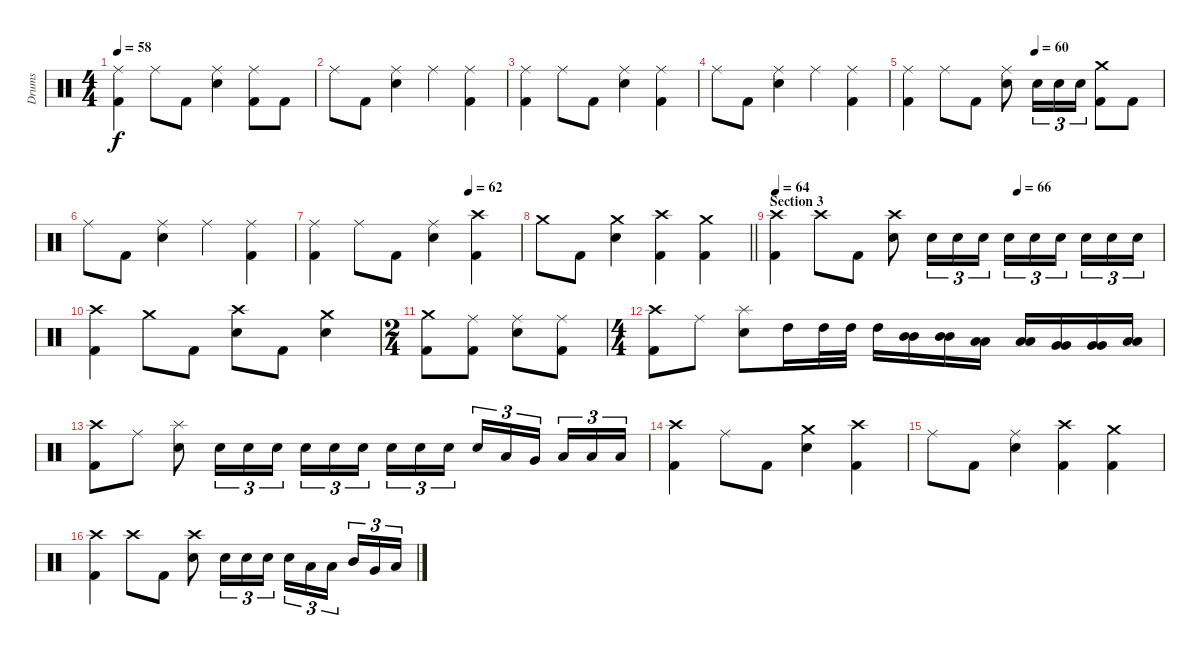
\track ("Drums" "Drums") {instrument percussion}
\staff {score}
\articulation defaults
\ts (4 4)
\tempo 58
\clef neutral
\ks c
("Ride (middle)" "Kick (hit) 2").4{dy f} "Ride (middle)".8 "Kick (hit) 2".8 ("Ride (middle)" "Electric Snare (hit)").4 ("Ride (middle)" "Kick (hit) 2").8 "Kick (hit) 2".8 |
"Ride (middle)".8 "Kick (hit) 2".8 ("Ride (middle)" "Electric Snare (hit)").4 "Ride (middle)".4 ("Ride (middle)" "Kick (hit) 2").4 |
("Ride (middle)" "Kick (hit) 2").4 "Ride (middle)".8 "Kick (hit) 2".8 ("Ride (middle)" "Electric Snare (hit)").4 ("Ride (middle)" "Kick (hit) 2").4 |
"Ride (middle)".8 "Kick (hit) 2".8 ("Ride (middle)" "Electric Snare (hit)").4 "Ride (middle)".4 ("Ride (middle)" "Kick (hit) 2").4 |
\tempo (60 0.5)
("Ride (middle)" "Kick (hit) 2").4 "Ride (middle)".8 "Kick (hit) 2".8 ("Ride (middle)" "Electric Snare (hit)").8 "Electric Snare (hit)".16{tu (3 2)} "Electric Snare (hit)".16{tu (3 2)} "Electric Snare (hit)".16{tu (3 2)} ("Crash medium (hit)" "Kick (hit) 2").8 "Kick (hit) 2".8 |
"Ride (middle)".8 "Kick (hit) 2".8 ("Ride (middle)" "Electric Snare (hit)").4 "Ride (middle)".4 ("Ride (middle)" "Kick (hit) 2").4 |
\tempo (62 0.75)
("Ride (middle)" "Kick (hit) 2").4 "Ride (middle)".8 "Kick (hit) 2".8 ("Ride (middle)" "Electric Snare (hit)").4 ("Crash high (hit)" "Kick (hit) 2").4 |
\barLineRight lightlight "Crash medium (hit)".8 "Kick (hit) 2".8
("Crash medium (hit)" "Electric Snare (hit)").4 ("Crash high (hit)" "Kick (hit) 2").4 ("Crash medium (hit)" "Kick (hit) 2").4 |
\section ("" "Section 3")
\tempo 64
\tempo (66 0.625)
("Crash high (hit)" "Kick (hit) 2").4 "Crash high (hit)".8 "Kick (hit) 2".8 ("Crash high (hit)" "Electric Snare (hit)").8 "Electric Snare (hit)".16{tu (3 2)} "Electric Snare (hit)".16{tu (3 2)} "Electric Snare (hit)".16{tu (3 2)} "Electric Snare (hit)".16{tu (3 2)} "Electric Snare (hit)".16{tu (3 2)} "Electric Snare (hit)".16{tu (3 2) beam splitsecondary} "Electric Snare (hit)".16{tu (3 2)} "Electric Snare (hit)".16{tu (3 2)} "Electric Snare (hit)".16{tu (3 2)} |
("Crash high (hit)" "Kick (hit) 2").4 "Crash medium (hit)".8 "Kick (hit) 2".8 ("Crash high (hit)" "Electric Snare (hit)").8 "Kick (hit) 2".8 ("Crash medium (hit)" "Electric Snare (hit)").4 |
\ts (2 4)
("Crash medium (hit)" "Kick (hit) 2").8 ("Ride (middle)" "Kick (hit) 2").8 ("Ride (middle)" "Electric Snare (hit)").8 ("Ride (middle)" "Kick (hit) 2").8 |
\ts (4 4)
("Crash high (hit)" "Kick (hit) 2").8 "Ride (middle)".8 ("Splash (hit)" "Electric Snare (hit)").8 "High Tom (hit)".16 "High Tom (hit)".32 "High Tom (hit)".32 "High Tom (hit)".16 ("Mid Tom (hit)" "Mid Tom (hit)").16 ("Mid Tom (hit)" "Mid Tom (hit)").16 ("Low Tom (hit)" "Low Tom (hit)").16 ("Low Tom (hit)" "Low Tom (hit)").16 ("Very Low Tom (hit)" "Very Low Tom (hit)").16 ("Very Low Tom (hit)" "Very Low Tom (hit)").16 ("Low Floor Tom (hit)" "Low Floor Tom (hit)").16 |
("Crash high (hit)" "Kick (hit) 2").8 "Ride (middle)".8 ("Splash (hit)" "Electric Snare (hit)").8 "Electric Snare (hit)".16{tu (3 2)} "Electric Snare (hit)".16{tu (3 2)} "Electric Snare (hit)".16{tu (3 2)} "Electric Snare (hit)".16{tu (3 2)} "Electric Snare (hit)".16{tu (3 2)} "Electric Snare (hit)".16{tu (3 2) beam splitsecondary} "Electric Snare (hit)".16{tu (3 2)} "Electric Snare (hit)".16{tu (3 2)} "Electric Snare (hit)".16{tu (3 2)} "Electric Snare (hit)".16{tu (3 2)} "Low Tom (hit)".16{tu (3 2)} "Very Low Tom (hit)".16{tu (3 2) beam splitsecondary} "Low Floor Tom (hit)".16{tu (3 2)} "Low Floor Tom (hit)".16{tu (3 2)} "Low Floor Tom (hit)".16{tu (3 2)} |
("Crash high (hit)" "Kick (hit) 2").4 "Ride (middle)".8 "Kick (hit) 2".8 ("Crash medium (hit)" "Electric Snare (hit)").4 ("Crash high (hit)" "Kick (hit) 2").4 |
"Ride (middle)".8 "Kick (hit) 2".8 ("Ride (middle)" "Electric Snare (hit)").4 ("Crash high (hit)" "Kick (hit) 2").4 ("Crash medium (hit)" "Kick (hit) 2").4 |
("Crash high (hit)" "Kick (hit) 2").4 "Crash high (hit)".8 "Kick (hit) 2".8 ("Crash high (hit)" "Electric Snare (hit)").8 "Electric Snare (hit)".16{tu (3 2)} "Electric Snare (hit)".16{tu (3 2)} "Electric Snare (hit)".16{tu (3 2)} "Electric Snare (hit)".16{tu (3 2)} "Low Tom (hit)".16{tu (3 2)} "Low Tom (hit)".16{tu (3 2) beam splitsecondary} "Mid Tom (hit)".16{tu (3 2)} "Very Low Tom (hit)".16{tu (3 2)} "Low Floor Tom (hit)".16{tu (3 2)}
